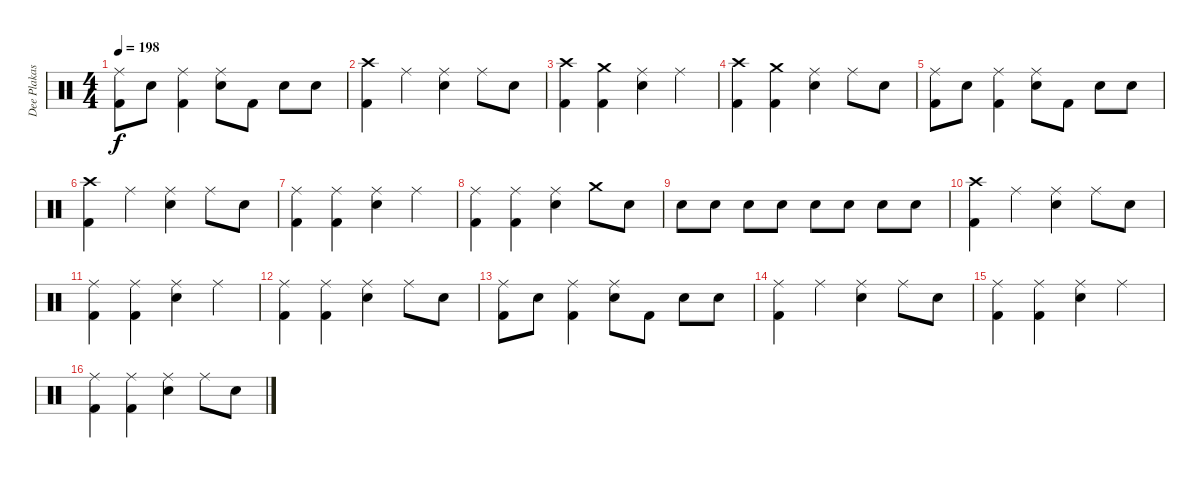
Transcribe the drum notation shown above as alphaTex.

\track ("Dee Plakas" "Dee Plakas") {instrument percussion}
\staff {score}
\articulation defaults
\ts (4 4)
\tempo 198
\clef neutral
\ks c
("Ride (middle)" "Kick (hit) 2").8{dy f} "Snare (hit) 2".8 ("Ride (middle)" "Kick (hit) 2").4 ("Ride (middle)" "Snare (hit) 2").8 "Kick (hit) 2".8 "Snare (hit) 2".8 "Snare (hit) 2".8 |
("Crash high (hit)" "Kick (hit) 2").4 "Ride (middle)".4 ("Ride (middle)" "Snare (hit) 2").4 "Ride (middle)".8 "Snare (hit) 2".8 |
("Crash high (hit)" "Kick (hit) 2").4 ("Crash medium (hit)" "Kick (hit) 2").4 ("Ride (middle)" "Snare (hit) 2").4 "Ride (middle)".4 |
("Crash high (hit)" "Kick (hit) 2").4 ("Crash medium (hit)" "Kick (hit) 2").4 ("Ride (middle)" "Snare (hit) 2").4 "Ride (middle)".8 "Snare (hit) 2".8 |
("Ride (middle)" "Kick (hit) 2").8 "Snare (hit) 2".8 ("Ride (middle)" "Kick (hit) 2").4 ("Ride (middle)" "Snare (hit) 2").8 "Kick (hit) 2".8 "Snare (hit) 2".8 "Snare (hit) 2".8 |
("Crash high (hit)" "Kick (hit) 2").4 "Ride (middle)".4 ("Ride (middle)" "Snare (hit) 2").4 "Ride (middle)".8 "Snare (hit) 2".8 |
("Ride (middle)" "Kick (hit) 2").4 ("Ride (middle)" "Kick (hit) 2").4 ("Ride (middle)" "Snare (hit) 2").4 "Ride (middle)".4 |
("Ride (middle)" "Kick (hit) 2").4 ("Ride (middle)" "Kick (hit) 2").4 ("Ride (middle)" "Snare (hit) 2").4 "Crash medium (hit)".8 "Snare (hit) 2".8 |
"Snare (hit) 2".8 "Snare (hit) 2".8 "Snare (hit) 2".8 "Snare (hit) 2".8 "Snare (hit) 2".8 "Snare (hit) 2".8 "Snare (hit) 2".8 "Snare (hit) 2".8 |
("Crash high (hit)" "Kick (hit) 2").4 "Ride (middle)".4 ("Ride (middle)" "Snare (hit) 2").4 "Ride (middle)".8 "Snare (hit) 2".8 |
("Ride (middle)" "Kick (hit) 2").4 ("Ride (middle)" "Kick (hit) 2").4 ("Ride (middle)" "Snare (hit) 2").4 "Ride (middle)".4 |
("Ride (middle)" "Kick (hit) 2").4 ("Ride (middle)" "Kick (hit) 2").4 ("Ride (middle)" "Snare (hit) 2").4 "Ride (middle)".8 "Snare (hit) 2".8 |
("Ride (middle)" "Kick (hit) 2").8 "Snare (hit) 2".8 ("Ride (middle)" "Kick (hit) 2").4 ("Ride (middle)" "Snare (hit) 2").8 "Kick (hit) 2".8 "Snare (hit) 2".8 "Snare (hit) 2".8 |
("Ride (middle)" "Kick (hit) 2").4 "Ride (middle)".4 ("Ride (middle)" "Snare (hit) 2").4 "Ride (middle)".8 "Snare (hit) 2".8 |
("Ride (middle)" "Kick (hit) 2").4 ("Ride (middle)" "Kick (hit) 2").4 ("Ride (middle)" "Snare (hit) 2").4 "Ride (middle)".4 |
("Ride (middle)" "Kick (hit) 2").4 ("Ride (middle)" "Kick (hit) 2").4 ("Ride (middle)" "Snare (hit) 2").4 "Ride (middle)".8 "Snare (hit) 2".8
